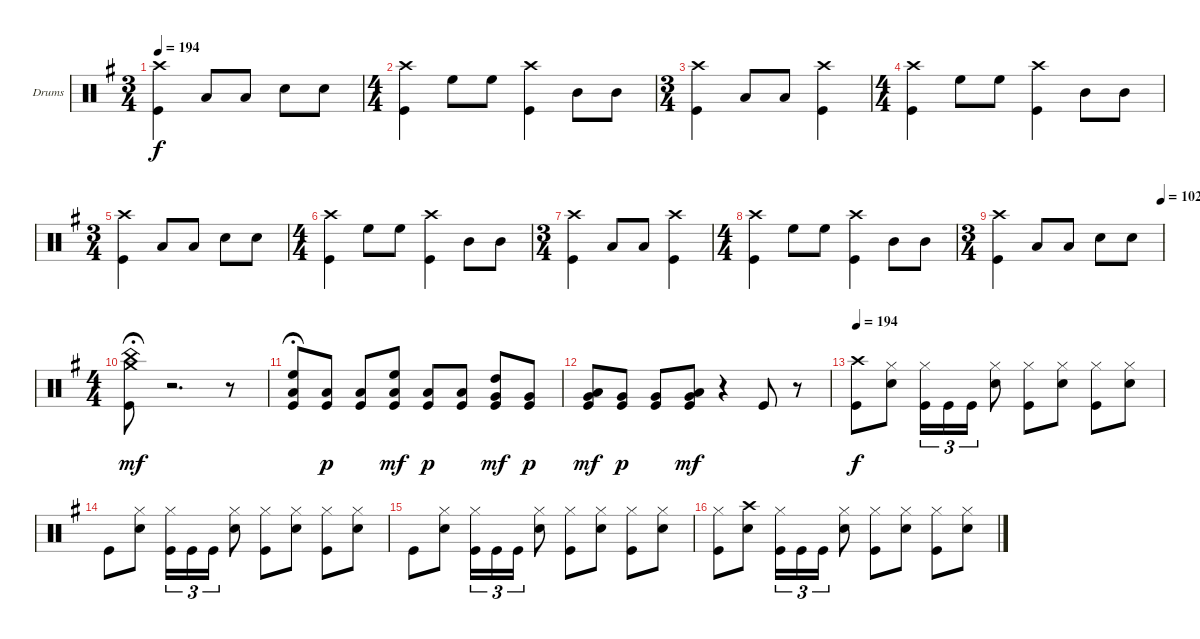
\bracketExtendMode groupsimilarinstruments
\firstSystemTrackNameOrientation horizontal
\otherSystemsTrackNameOrientation horizontal
\track ("Drumkit" "Drums") {instrument percussion}
\staff {score}
\articulation defaults
\ts (3 4)
\tempo 194
\clef neutral
\scale
1.07314
\ks g
("Crash high (hit)" "Kick (hit)").4{dy f} "Low Tom (hit)".8 "Low Tom (hit)".8 "Snare (hit) 2".8 "Snare (hit) 2".8 |
\ts (4 4)
\scale
0.92686 ("Crash high (hit)" "Kick (hit)").4 "High Floor Tom (hit)".8 "High Floor Tom (hit)".8 ("Crash high (hit)" "Kick (hit)").4 "Mid Tom (hit)".8 "Mid Tom (hit)".8 |
\ts (3 4)
\scale
1.07314 ("Crash high (hit)" "Kick (hit)").4 "Low Tom (hit)".8 "Low Tom (hit)".8 ("Crash high (hit)" "Kick (hit)").4 |
\ts (4 4)
\scale
0.92686 ("Crash high (hit)" "Kick (hit)").4 "High Floor Tom (hit)".8 "High Floor Tom (hit)".8 ("Crash high (hit)" "Kick (hit)").4 "Mid Tom (hit)".8 "Mid Tom (hit)".8 |
\ts (3 4)
\scale
1.07314 ("Crash high (hit)" "Kick (hit)").4 "Low Tom (hit)".8 "Low Tom (hit)".8 "Snare (hit) 2".8 "Snare (hit) 2".8 |
\ts (4 4)
\scale
0.92686 ("Crash high (hit)" "Kick (hit)").4 "High Floor Tom (hit)".8 "High Floor Tom (hit)".8 ("Crash high (hit)" "Kick (hit)").4 "Mid Tom (hit)".8 "Mid Tom (hit)".8 |
\ts (3 4)
\scale
1.07314 ("Crash high (hit)" "Kick (hit)").4 "Low Tom (hit)".8 "Low Tom (hit)".8 ("Crash high (hit)" "Kick (hit)").4 |
\ts (4 4)
\scale
0.92686 ("Crash high (hit)" "Kick (hit)").4 "High Floor Tom (hit)".8 "High Floor Tom (hit)".8 ("Crash high (hit)" "Kick (hit)").4 "Mid Tom (hit)".8 "Mid Tom (hit)".8 |
\ts (3 4)
\tempo (102 0.99375)
\scale
1.07314 ("Crash high (hit)" "Kick (hit)").4 "Low Tom (hit)".8 "Low Tom (hit)".8 "Snare (hit) 2".8 "Snare (hit) 2".8 |
\ts (4 4)
\scale
0.92686 ("China (hit)" "Crash medium (hit)" "Kick (hit)").8{dy mf fermata (medium 1)} r.2{d} r.8 |
\scale
1.04288 ("Kick (hit)" "Low Tom (hit)" "High Floor Tom (hit)").8{fermata (medium 1)} ("Low Tom (hit)" "Kick (hit)").8{dy p} ("Low Tom (hit)" "Kick (hit)").8 ("Kick (hit)" "Low Tom (hit)" "High Floor Tom (hit)").8{dy mf} ("Low Tom (hit)" "Kick (hit)").8{dy p} ("Low Tom (hit)" "Kick (hit)").8 ("Very Low Tom (hit)" "High Tom (hit)" "Kick (hit)").8{dy mf} ("Very Low Tom (hit)" "Kick (hit)").8{dy p} |
\scale
0.957125 ("Low Tom (hit)" "Kick (hit)" "Very Low Tom (hit)").8{dy mf} ("Very Low Tom (hit)" "Kick (hit)").8{dy p} ("Very Low Tom (hit)" "Kick (hit)").8 ("Low Tom (hit)" "Kick (hit)" "Very Low Tom (hit)").8{dy mf} r.4 "Kick (hit)".8 r.8 |
\tempo 194
\scale
1.04288 ("Crash high (hit)" "Kick (hit)").8{dy f} ("Hi-Hat (closed)" "Snare (hit) 2").8 ("Hi-Hat (closed)" "Kick (hit)").16{tu (3 2)} "Kick (hit)".16{tu (3 2)} "Kick (hit)".16{tu (3 2)} ("Hi-Hat (closed)" "Snare (hit) 2").8 ("Hi-Hat (closed)" "Kick (hit)").8 ("Hi-Hat (closed)" "Snare (hit) 2").8 ("Hi-Hat (closed)" "Kick (hit)").8 ("Hi-Hat (closed)" "Snare (hit) 2").8 |
\scale
0.957125 "Kick (hit)".8 ("Hi-Hat (closed)" "Snare (hit) 2").8 ("Hi-Hat (closed)" "Kick (hit)").16{tu (3 2)} "Kick (hit)".16{tu (3 2)} "Kick (hit)".16{tu (3 2)} ("Hi-Hat (closed)" "Snare (hit) 2").8 ("Hi-Hat (closed)" "Kick (hit)").8 ("Hi-Hat (closed)" "Snare (hit) 2").8 ("Hi-Hat (closed)" "Kick (hit)").8 ("Hi-Hat (closed)" "Snare (hit) 2").8 |
\scale
1.04288 "Kick (hit)".8 ("Hi-Hat (closed)" "Snare (hit) 2").8 ("Hi-Hat (closed)" "Kick (hit)").16{tu (3 2)} "Kick (hit)".16{tu (3 2)} "Kick (hit)".16{tu (3 2)} ("Hi-Hat (closed)" "Snare (hit) 2").8 ("Hi-Hat (closed)" "Kick (hit)").8 ("Hi-Hat (closed)" "Snare (hit) 2").8 ("Hi-Hat (closed)" "Kick (hit)").8 ("Hi-Hat (closed)" "Snare (hit) 2").8 |
\scale
0.957125 ("Hi-Hat (closed)" "Kick (hit)").8 ("Crash high (hit)" "Snare (hit) 2").8 ("Hi-Hat (closed)" "Kick (hit)").16{tu (3 2)} "Kick (hit)".16{tu (3 2)} "Kick (hit)".16{tu (3 2)} ("Hi-Hat (closed)" "Snare (hit) 2").8 ("Hi-Hat (closed)" "Kick (hit)").8 ("Hi-Hat (closed)" "Snare (hit) 2").8 ("Hi-Hat (closed)" "Kick (hit)").8 ("Hi-Hat (closed)" "Snare (hit) 2").8
